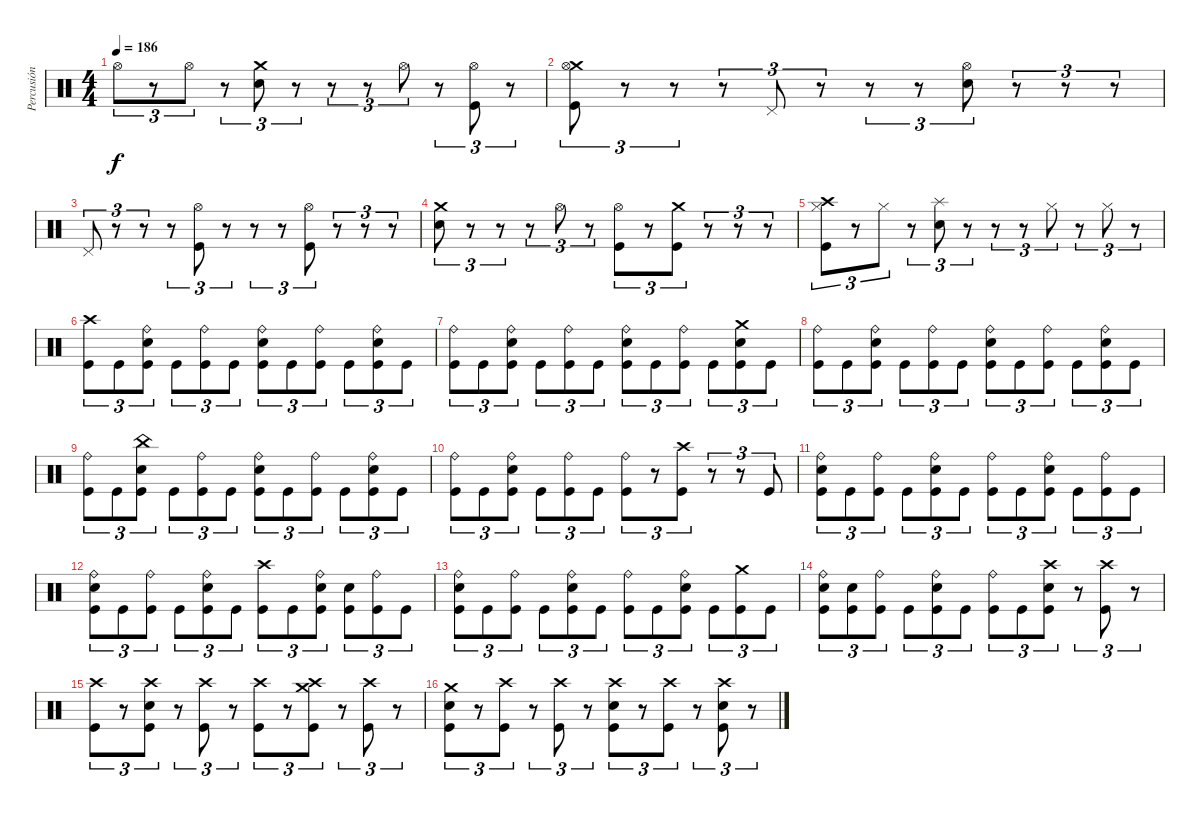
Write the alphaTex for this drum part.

\track ("Percusión" "Percusión") {instrument percussion}
\staff {score}
\articulation defaults
\ts (4 4)
\tempo 186
\clef neutral
\ks c "Hi-Hat (open)".8{tu (3 2) dy f}
r.8{tu (3 2)} "Hi-Hat (open)".8{tu (3 2)} r.8{tu (3 2)} ("Crash medium (hit)" "Snare (hit) 2").8{tu (3 2)} r.8{tu (3 2)} r.8{tu (3 2)} r.8{tu (3 2)} "Hi-Hat (open)".8{tu (3 2)} r.8{tu (3 2)} ("Hi-Hat (open)" "Kick (hit)").8{tu (3 2)} r.8{tu (3 2)} |
("Crash medium (hit)" "Hi-Hat (open)" "Kick (hit)").8{tu (3 2)} r.8{tu (3 2)} r.8{tu (3 2)} r.8{tu (3 2)} "Pedal Hi-Hat (hit)".8{tu (3 2)} r.8{tu (3 2)} r.8{tu (3 2)} r.8{tu (3 2)} ("Hi-Hat (open)" "Snare (hit) 2").8{tu (3 2)} r.8{tu (3 2)} r.8{tu (3 2)} r.8{tu (3 2)} |
"Pedal Hi-Hat (hit)".8{tu (3 2)} r.8{tu (3 2)} r.8{tu (3 2)} r.8{tu (3 2)} ("Hi-Hat (open)" "Kick (hit)").8{tu (3 2)} r.8{tu (3 2)} r.8{tu (3 2)} r.8{tu (3 2)} ("Hi-Hat (open)" "Kick (hit)").8{tu (3 2)} r.8{tu (3 2)} r.8{tu (3 2)} r.8{tu (3 2)} |
("Crash medium (hit)" "Snare (hit) 2").8{tu (3 2)} r.8{tu (3 2)} r.8{tu (3 2)} r.8{tu (3 2)} "Hi-Hat (open)".8{tu (3 2)} r.8{tu (3 2)} ("Hi-Hat (open)" "Kick (hit)").8{tu (3 2)} r.8{tu (3 2)} ("Crash medium (hit)" "Kick (hit)").8{tu (3 2)} r.8{tu (3 2)} r.8{tu (3 2)} r.8{tu (3 2)} |
("Crash high (hit)" "Hi-Hat (closed)" "Kick (hit)").8{tu (3 2)} r.8{tu (3 2)} "Hi-Hat (closed)".8{tu (3 2)} r.8{tu (3 2)} ("Splash (hit)" "Snare (hit) 2").8{tu (3 2)} r.8{tu (3 2)} r.8{tu (3 2)} r.8{tu (3 2)} "Hi-Hat (closed)".8{tu (3 2)} r.8{tu (3 2)} "Hi-Hat (closed)".8{tu (3 2)} r.8{tu (3 2)} |
("Crash high (hit)" "Kick (hit)").8{tu (3 2)} "Kick (hit)".8{tu (3 2)} ("Ride (bell)" "Snare (hit) 2" "Kick (hit)").8{tu (3 2)} "Kick (hit)".8{tu (3 2)} ("Ride (bell)" "Kick (hit)").8{tu (3 2)} "Kick (hit)".8{tu (3 2)} ("Ride (bell)" "Snare (hit) 2" "Kick (hit)").8{tu (3 2)} "Kick (hit)".8{tu (3 2)} ("Ride (bell)" "Kick (hit)").8{tu (3 2)} "Kick (hit)".8{tu (3 2)} ("Ride (bell)" "Snare (hit) 2" "Kick (hit)").8{tu (3 2)} "Kick (hit)".8{tu (3 2)} |
("Ride (bell)" "Kick (hit)").8{tu (3 2)} "Kick (hit)".8{tu (3 2)} ("Ride (bell)" "Snare (hit) 2" "Kick (hit)").8{tu (3 2)} "Kick (hit)".8{tu (3 2)} ("Ride (bell)" "Kick (hit)").8{tu (3 2)} "Kick (hit)".8{tu (3 2)} ("Ride (bell)" "Snare (hit) 2" "Kick (hit)").8{tu (3 2)} "Kick (hit)".8{tu (3 2)} ("Ride (bell)" "Kick (hit)").8{tu (3 2)} "Kick (hit)".8{tu (3 2)} ("Crash medium (hit)" "Snare (hit) 2" "Kick (hit)").8{tu (3 2)} "Kick (hit)".8{tu (3 2)} |
("Ride (bell)" "Kick (hit)").8{tu (3 2)} "Kick (hit)".8{tu (3 2)} ("Ride (bell)" "Snare (hit) 2" "Kick (hit)").8{tu (3 2)} "Kick (hit)".8{tu (3 2)} ("Ride (bell)" "Kick (hit)").8{tu (3 2)} "Kick (hit)".8{tu (3 2)} ("Ride (bell)" "Snare (hit) 2" "Kick (hit)").8{tu (3 2)} "Kick (hit)".8{tu (3 2)} ("Ride (bell)" "Kick (hit)").8{tu (3 2)} "Kick (hit)".8{tu (3 2)} ("Ride (bell)" "Snare (hit) 2" "Kick (hit)").8{tu (3 2)} "Kick (hit)".8{tu (3 2)} |
("Ride (bell)" "Kick (hit)").8{tu (3 2)} "Kick (hit)".8{tu (3 2)} ("China (hit)" "Snare (hit) 2" "Kick (hit)").8{tu (3 2)} "Kick (hit)".8{tu (3 2)} ("Ride (bell)" "Kick (hit)").8{tu (3 2)} "Kick (hit)".8{tu (3 2)} ("Ride (bell)" "Snare (hit) 2" "Kick (hit)").8{tu (3 2)} "Kick (hit)".8{tu (3 2)} ("Ride (bell)" "Kick (hit)").8{tu (3 2)} "Kick (hit)".8{tu (3 2)} ("Ride (bell)" "Snare (hit) 2" "Kick (hit)").8{tu (3 2)} "Kick (hit)".8{tu (3 2)} |
("Ride (bell)" "Kick (hit)").8{tu (3 2)} "Kick (hit)".8{tu (3 2)} ("Ride (bell)" "Snare (hit) 2" "Kick (hit)").8{tu (3 2)} "Kick (hit)".8{tu (3 2)} ("Ride (bell)" "Kick (hit)").8{tu (3 2)} "Kick (hit)".8{tu (3 2)} ("Ride (bell)" "Kick (hit)").8{tu (3 2)} r.8{tu (3 2)} ("Crash high (hit)" "Kick (hit)").8{tu (3 2)} r.8{tu (3 2)} r.8{tu (3 2)} "Kick (hit)".8{tu (3 2)} |
("Ride (bell)" "Snare (hit) 2" "Kick (hit)").8{tu (3 2)} "Kick (hit)".8{tu (3 2)} ("Ride (bell)" "Kick (hit)").8{tu (3 2)} "Kick (hit)".8{tu (3 2)} ("Ride (bell)" "Snare (hit) 2" "Kick (hit)").8{tu (3 2)} "Kick (hit)".8{tu (3 2)} ("Ride (bell)" "Kick (hit)").8{tu (3 2)} "Kick (hit)".8{tu (3 2)} ("Ride (bell)" "Snare (hit) 2" "Kick (hit)").8{tu (3 2)} "Kick (hit)".8{tu (3 2)} ("Ride (bell)" "Kick (hit)").8{tu (3 2)} "Kick (hit)".8{tu (3 2)} |
("Ride (bell)" "Snare (hit) 2" "Kick (hit)").8{tu (3 2)} "Kick (hit)".8{tu (3 2)} ("Ride (bell)" "Kick (hit)").8{tu (3 2)} "Kick (hit)".8{tu (3 2)} ("Ride (bell)" "Snare (hit) 2" "Kick (hit)").8{tu (3 2)} "Kick (hit)".8{tu (3 2)} ("Crash high (hit)" "Kick (hit)").8{tu (3 2)} "Kick (hit)".8{tu (3 2)} ("Ride (bell)" "Snare (hit) 2" "Kick (hit)").8{tu (3 2)} ("Snare (hit) 2" "Kick (hit)").8{tu (3 2)} ("Ride (bell)" "Kick (hit)").8{tu (3 2)} "Kick (hit)".8{tu (3 2)} |
("Ride (bell)" "Snare (hit) 2" "Kick (hit)").8{tu (3 2)} "Kick (hit)".8{tu (3 2)} ("Ride (bell)" "Kick (hit)").8{tu (3 2)} "Kick (hit)".8{tu (3 2)} ("Ride (bell)" "Snare (hit) 2" "Kick (hit)").8{tu (3 2)} "Kick (hit)".8{tu (3 2)} ("Ride (bell)" "Kick (hit)").8{tu (3 2)} "Kick (hit)".8{tu (3 2)} ("Ride (bell)" "Snare (hit) 2" "Kick (hit)").8{tu (3 2)} "Kick (hit)".8{tu (3 2)} ("Crash medium (hit)" "Kick (hit)").8{tu (3 2)} "Kick (hit)".8{tu (3 2)} |
("Ride (bell)" "Snare (hit) 2" "Kick (hit)").8{tu (3 2)} ("Snare (hit) 2" "Kick (hit)").8{tu (3 2)} ("Ride (bell)" "Kick (hit)").8{tu (3 2)} "Kick (hit)".8{tu (3 2)} ("Ride (bell)" "Snare (hit) 2" "Kick (hit)").8{tu (3 2)} "Kick (hit)".8{tu (3 2)} ("Ride (bell)" "Kick (hit)").8{tu (3 2)} "Kick (hit)".8{tu (3 2)} ("Crash high (hit)" "Snare (hit) 2" "Kick (hit)").8{tu (3 2)} r.8{tu (3 2)} ("Crash high (hit)" "Kick (hit)").8{tu (3 2)} r.8{tu (3 2)} |
("Crash high (hit)" "Kick (hit)").8{tu (3 2)} r.8{tu (3 2)} ("Crash high (hit)" "Snare (hit) 2" "Kick (hit)").8{tu (3 2)} r.8{tu (3 2)} ("Crash high (hit)" "Kick (hit)").8{tu (3 2)} r.8{tu (3 2)} ("Crash high (hit)" "Kick (hit)").8{tu (3 2)} r.8{tu (3 2)} ("Crash high (hit)" "Crash medium (hit)" "Kick (hit)").8{tu (3 2)} r.8{tu (3 2)} ("Crash high (hit)" "Kick (hit)").8{tu (3 2)} r.8{tu (3 2)} |
("Crash medium (hit)" "Snare (hit) 2" "Kick (hit)").8{tu (3 2)} r.8{tu (3 2)} ("Crash high (hit)" "Kick (hit)").8{tu (3 2)} r.8{tu (3 2)} ("Crash high (hit)" "Kick (hit)").8{tu (3 2)} r.8{tu (3 2)} ("Crash high (hit)" "Snare (hit) 2" "Kick (hit)").8{tu (3 2)} r.8{tu (3 2)} ("Crash high (hit)" "Kick (hit)").8{tu (3 2)} r.8{tu (3 2)} ("Crash high (hit)" "Snare (hit) 2" "Kick (hit)").8{tu (3 2)} r.8{tu (3 2)}
